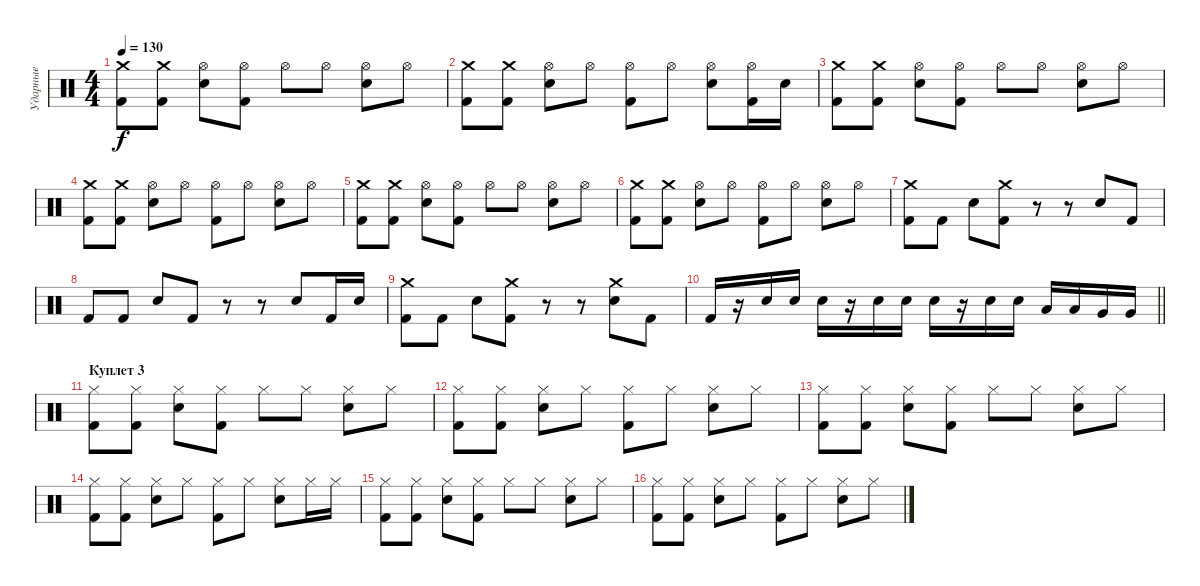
\track ("Ударные" "Ударные") {instrument percussion}
\staff {score}
\articulation defaults
\ts (4 4)
\tempo 130
\clef neutral
\ks c
("Crash medium (hit)" "Kick (hit) 2").8{dy f} ("Crash medium (hit)" "Kick (hit) 2").8 ("Hi-Hat (open)" "Snare (hit) 2").8 ("Hi-Hat (open)" "Kick (hit) 2").8 "Hi-Hat (open)".8 "Hi-Hat (open)".8 ("Hi-Hat (open)" "Snare (hit) 2").8 "Hi-Hat (open)".8 |
("Crash medium (hit)" "Kick (hit) 2").8 ("Crash medium (hit)" "Kick (hit) 2").8 ("Hi-Hat (open)" "Snare (hit) 2").8 "Hi-Hat (open)".8 ("Hi-Hat (open)" "Kick (hit) 2").8 "Hi-Hat (open)".8 ("Hi-Hat (open)" "Snare (hit) 2").8 ("Hi-Hat (open)" "Kick (hit) 2").16 "Snare (hit) 2".16 |
("Crash medium (hit)" "Kick (hit) 2").8 ("Crash medium (hit)" "Kick (hit) 2").8 ("Hi-Hat (open)" "Snare (hit) 2").8 ("Hi-Hat (open)" "Kick (hit) 2").8 "Hi-Hat (open)".8 "Hi-Hat (open)".8 ("Hi-Hat (open)" "Snare (hit) 2").8 "Hi-Hat (open)".8 |
("Crash medium (hit)" "Kick (hit) 2").8 ("Crash medium (hit)" "Kick (hit) 2").8 ("Hi-Hat (open)" "Snare (hit) 2").8 "Hi-Hat (open)".8 ("Hi-Hat (open)" "Kick (hit) 2").8 "Hi-Hat (open)".8 ("Hi-Hat (open)" "Snare (hit) 2").8 "Hi-Hat (open)".8 |
("Crash medium (hit)" "Kick (hit) 2").8 ("Crash medium (hit)" "Kick (hit) 2").8 ("Hi-Hat (open)" "Snare (hit) 2").8 ("Hi-Hat (open)" "Kick (hit) 2").8 "Hi-Hat (open)".8 "Hi-Hat (open)".8 ("Hi-Hat (open)" "Snare (hit) 2").8 "Hi-Hat (open)".8 |
("Crash medium (hit)" "Kick (hit) 2").8 ("Crash medium (hit)" "Kick (hit) 2").8 ("Hi-Hat (open)" "Snare (hit) 2").8 "Hi-Hat (open)".8 ("Hi-Hat (open)" "Kick (hit) 2").8 "Hi-Hat (open)".8 ("Hi-Hat (open)" "Snare (hit) 2").8 "Hi-Hat (open)".8 |
("Crash medium (hit)" "Kick (hit) 2").8 "Kick (hit) 2".8 "Snare (hit) 2".8 ("Crash medium (hit)" "Kick (hit) 2").8 r.8 r.8 "Snare (hit) 2".8 "Kick (hit) 2".8 |
"Kick (hit) 2".8 "Kick (hit) 2".8 "Snare (hit) 2".8 "Kick (hit) 2".8 r.8 r.8 "Snare (hit) 2".8 "Kick (hit) 2".16 "Snare (hit) 2".16 |
("Crash medium (hit)" "Kick (hit) 2").8 "Kick (hit) 2".8 "Snare (hit) 2".8 ("Crash medium (hit)" "Kick (hit) 2").8 r.8 r.8 ("Crash medium (hit)" "Snare (hit) 2").8 "Kick (hit) 2".8 |
\barLineRight lightlight "Kick (hit) 2".16
r.16 "Snare (hit) 2".16 "Snare (hit) 2".16 "Snare (hit) 2".16 r.16 "Snare (hit) 2".16 "Snare (hit) 2".16 "Snare (hit) 2".16 r.16 "Snare (hit) 2".16 "Snare (hit) 2".16 "Low Floor Tom (hit)".16 "Low Floor Tom (hit)".16 "Very Low Tom (hit)".16 "Very Low Tom (hit)".16 |
\section ("" "Куплет 3")
("Hi-Hat (closed)" "Kick (hit) 2").8 ("Hi-Hat (closed)" "Kick (hit) 2").8 ("Hi-Hat (closed)" "Snare (hit) 2").8 ("Hi-Hat (closed)" "Kick (hit) 2").8 "Hi-Hat (closed)".8 "Hi-Hat (closed)".8 ("Hi-Hat (closed)" "Snare (hit) 2").8 "Hi-Hat (closed)".8 |
("Hi-Hat (closed)" "Kick (hit) 2").8 ("Hi-Hat (closed)" "Kick (hit) 2").8 ("Hi-Hat (closed)" "Snare (hit) 2").8 "Hi-Hat (closed)".8 ("Hi-Hat (closed)" "Kick (hit) 2").8 "Hi-Hat (closed)".8 ("Hi-Hat (closed)" "Snare (hit) 2").8 "Hi-Hat (closed)".8 |
("Hi-Hat (closed)" "Kick (hit) 2").8 ("Hi-Hat (closed)" "Kick (hit) 2").8 ("Hi-Hat (closed)" "Snare (hit) 2").8 ("Hi-Hat (closed)" "Kick (hit) 2").8 "Hi-Hat (closed)".8 "Hi-Hat (closed)".8 ("Hi-Hat (closed)" "Snare (hit) 2").8 "Hi-Hat (closed)".8 |
("Hi-Hat (closed)" "Kick (hit) 2").8 ("Hi-Hat (closed)" "Kick (hit) 2").8 ("Hi-Hat (closed)" "Snare (hit) 2").8 "Hi-Hat (closed)".8 ("Hi-Hat (closed)" "Kick (hit) 2").8 "Hi-Hat (closed)".8 ("Hi-Hat (closed)" "Snare (hit) 2").8 "Hi-Hat (closed)".16 "Hi-Hat (closed)".16 |
("Hi-Hat (closed)" "Kick (hit) 2").8 ("Hi-Hat (closed)" "Kick (hit) 2").8 ("Hi-Hat (closed)" "Snare (hit) 2").8 ("Hi-Hat (closed)" "Kick (hit) 2").8 "Hi-Hat (closed)".8 "Hi-Hat (closed)".8 ("Hi-Hat (closed)" "Snare (hit) 2").8 "Hi-Hat (closed)".8 |
("Hi-Hat (closed)" "Kick (hit) 2").8 ("Hi-Hat (closed)" "Kick (hit) 2").8 ("Hi-Hat (closed)" "Snare (hit) 2").8 "Hi-Hat (closed)".8 ("Hi-Hat (closed)" "Kick (hit) 2").8 "Hi-Hat (closed)".8 ("Hi-Hat (closed)" "Snare (hit) 2").8 "Hi-Hat (closed)".8
